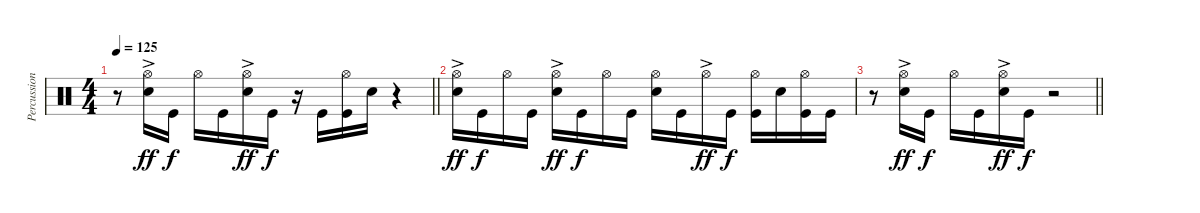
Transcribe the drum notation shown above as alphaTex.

\track ("Percussion" "Percussion") {instrument percussion}
\staff {score}
\articulation defaults
\ts (4 4)
\tempo 125
\clef neutral
\barLineRight lightlight
\ks c
r.8{dy f} ("Hi-Hat (open)"{ac} "Snare (hit) 2").16{dy ff} "Kick (hit)".16{dy f} "Hi-Hat (open)".16 "Kick (hit)".16 ("Hi-Hat (open)"{ac} "Snare (hit) 2").16{dy ff} "Kick (hit)".16{dy f} r.16 "Kick (hit)".16 ("Hi-Hat (open)" "Kick (hit)").16 "Snare (hit) 2".16 r.4 |
("Hi-Hat (open)"{ac} "Snare (hit) 2").16{dy ff} "Kick (hit)".16{dy f} "Hi-Hat (open)".16 "Kick (hit)".16 ("Hi-Hat (open)"{ac} "Snare (hit) 2").16{dy ff} "Kick (hit)".16{dy f} "Hi-Hat (open)".16 "Kick (hit)".16 ("Hi-Hat (open)" "Snare (hit) 2").16 "Kick (hit)".16 "Hi-Hat (open)"{ac}.16{dy ff} "Kick (hit)".16{dy f} ("Hi-Hat (open)" "Kick (hit)").16 "Snare (hit) 2".16 ("Hi-Hat (open)" "Kick (hit)").16 "Kick (hit)".16 |
\barLineRight lightlight
r.8 ("Hi-Hat (open)"{ac} "Snare (hit) 2").16{dy ff} "Kick (hit)".16{dy f} "Hi-Hat (open)".16 "Kick (hit)".16 ("Hi-Hat (open)"{ac} "Snare (hit) 2").16{dy ff} "Kick (hit)".16{dy f} r.2
